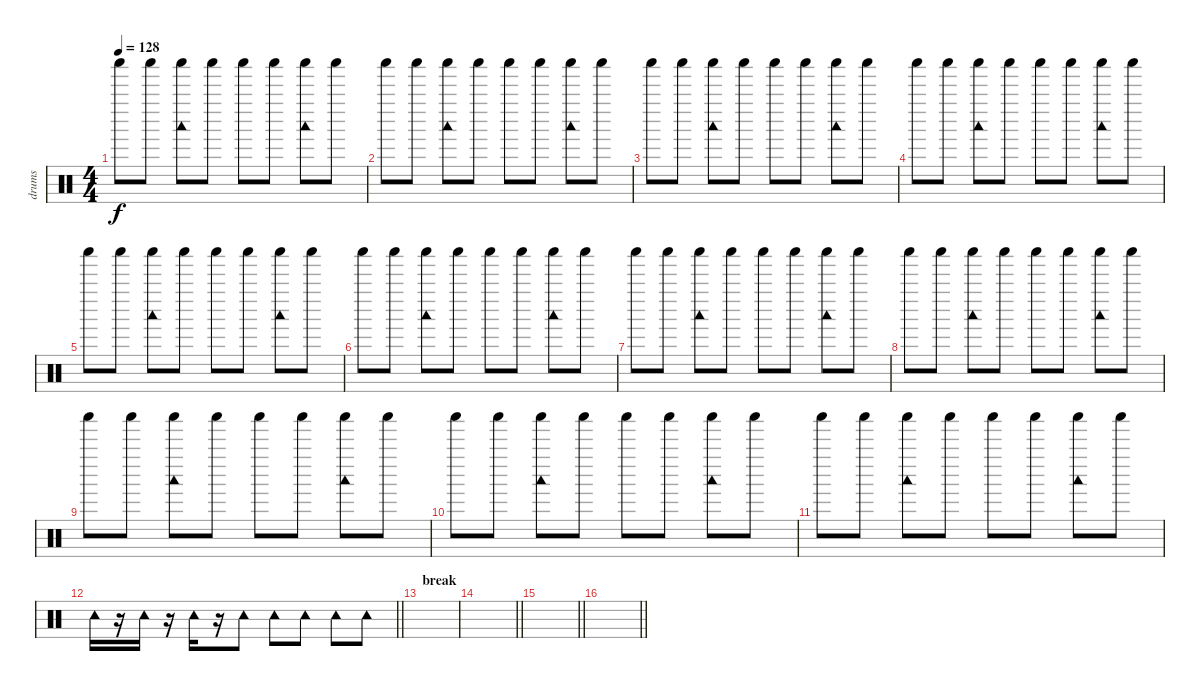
\track ("drums" "drums") {instrument percussion}
\staff {score}
\articulation defaults
\ts (4 4)
\tempo 128
\clef neutral
\ks c "Shaker (hit)".8{dy f} "Shaker (hit)".8
("Shaker (hit)" "Woodblock low (hit)").8 "Shaker (hit)".8 "Shaker (hit)".8 "Shaker (hit)".8 ("Shaker (hit)" "Woodblock low (hit)").8 "Shaker (hit)".8 |
"Shaker (hit)".8 "Shaker (hit)".8 ("Shaker (hit)" "Woodblock low (hit)").8 "Shaker (hit)".8 "Shaker (hit)".8 "Shaker (hit)".8 ("Shaker (hit)" "Woodblock low (hit)").8 "Shaker (hit)".8 |
"Shaker (hit)".8 "Shaker (hit)".8 ("Shaker (hit)" "Woodblock low (hit)").8 "Shaker (hit)".8 "Shaker (hit)".8 "Shaker (hit)".8 ("Shaker (hit)" "Woodblock low (hit)").8 "Shaker (hit)".8 |
"Shaker (hit)".8 "Shaker (hit)".8 ("Shaker (hit)" "Woodblock low (hit)").8 "Shaker (hit)".8 "Shaker (hit)".8 "Shaker (hit)".8 ("Shaker (hit)" "Woodblock low (hit)").8 "Shaker (hit)".8 |
"Shaker (hit)".8 "Shaker (hit)".8 ("Shaker (hit)" "Woodblock low (hit)").8 "Shaker (hit)".8 "Shaker (hit)".8 "Shaker (hit)".8 ("Shaker (hit)" "Woodblock low (hit)").8 "Shaker (hit)".8 |
"Shaker (hit)".8 "Shaker (hit)".8 ("Shaker (hit)" "Woodblock low (hit)").8 "Shaker (hit)".8 "Shaker (hit)".8 "Shaker (hit)".8 ("Shaker (hit)" "Woodblock low (hit)").8 "Shaker (hit)".8 |
"Shaker (hit)".8 "Shaker (hit)".8 ("Shaker (hit)" "Woodblock low (hit)").8 "Shaker (hit)".8 "Shaker (hit)".8 "Shaker (hit)".8 ("Shaker (hit)" "Woodblock low (hit)").8 "Shaker (hit)".8 |
"Shaker (hit)".8 "Shaker (hit)".8 ("Shaker (hit)" "Woodblock low (hit)").8 "Shaker (hit)".8 "Shaker (hit)".8 "Shaker (hit)".8 ("Shaker (hit)" "Woodblock low (hit)").8 "Shaker (hit)".8 |
"Shaker (hit)".8 "Shaker (hit)".8 ("Shaker (hit)" "Woodblock low (hit)").8 "Shaker (hit)".8 "Shaker (hit)".8 "Shaker (hit)".8 ("Shaker (hit)" "Woodblock low (hit)").8 "Shaker (hit)".8 |
"Shaker (hit)".8 "Shaker (hit)".8 ("Shaker (hit)" "Woodblock low (hit)").8 "Shaker (hit)".8 "Shaker (hit)".8 "Shaker (hit)".8 ("Shaker (hit)" "Woodblock low (hit)").8 "Shaker (hit)".8 |
"Shaker (hit)".8 "Shaker (hit)".8 ("Shaker (hit)" "Woodblock low (hit)").8 "Shaker (hit)".8 "Shaker (hit)".8 "Shaker (hit)".8 ("Shaker (hit)" "Woodblock low (hit)").8 "Shaker (hit)".8 |
\barLineRight lightlight "Tambourine (hit)".16
r.16 "Tambourine (hit)".16 r.16 "Tambourine (hit)".16 r.16 "Tambourine (hit)".8 "Tambourine (hit)".8 "Tambourine (hit)".8 "Tambourine (hit)".8 "Tambourine (hit)".8 |
\section ("" "break")
|
\barLineRight lightlight
|
\barLineRight lightlight
|
\barLineRight lightlight
